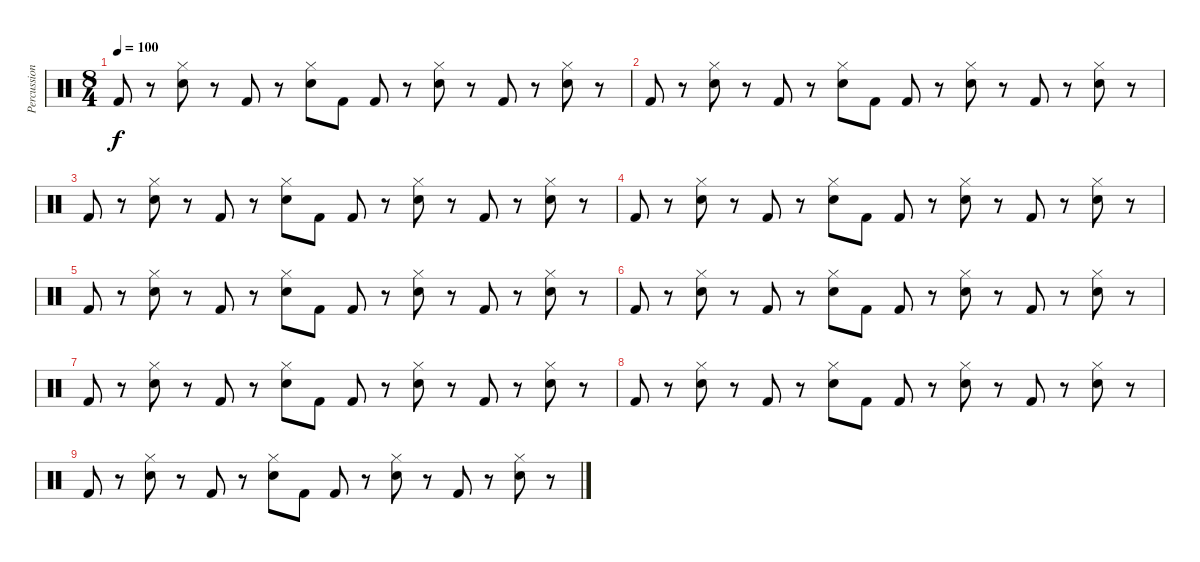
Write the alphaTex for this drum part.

\track ("Percussion" "Percussion") {instrument percussion}
\staff {score}
\articulation defaults
\ts (8 4)
\tempo 100
\clef neutral
\ks c "Kick (hit) 2".8{dy f}
r.8 ("Hi-Hat (closed)" "Snare (hit) 2").8 r.8 "Kick (hit) 2".8 r.8 ("Hi-Hat (closed)" "Snare (hit) 2").8 "Kick (hit) 2".8 "Kick (hit) 2".8 r.8 ("Hi-Hat (closed)" "Snare (hit) 2").8 r.8 "Kick (hit) 2".8 r.8 ("Hi-Hat (closed)" "Snare (hit) 2").8 r.8 |
"Kick (hit) 2".8 r.8 ("Hi-Hat (closed)" "Snare (hit) 2").8 r.8 "Kick (hit) 2".8 r.8 ("Hi-Hat (closed)" "Snare (hit) 2").8 "Kick (hit) 2".8 "Kick (hit) 2".8 r.8 ("Hi-Hat (closed)" "Snare (hit) 2").8 r.8 "Kick (hit) 2".8 r.8 ("Hi-Hat (closed)" "Snare (hit) 2").8 r.8 |
"Kick (hit) 2".8 r.8 ("Hi-Hat (closed)" "Snare (hit) 2").8 r.8 "Kick (hit) 2".8 r.8 ("Hi-Hat (closed)" "Snare (hit) 2").8 "Kick (hit) 2".8 "Kick (hit) 2".8 r.8 ("Hi-Hat (closed)" "Snare (hit) 2").8 r.8 "Kick (hit) 2".8 r.8 ("Hi-Hat (closed)" "Snare (hit) 2").8 r.8 |
"Kick (hit) 2".8 r.8 ("Hi-Hat (closed)" "Snare (hit) 2").8 r.8 "Kick (hit) 2".8 r.8 ("Hi-Hat (closed)" "Snare (hit) 2").8 "Kick (hit) 2".8 "Kick (hit) 2".8 r.8 ("Hi-Hat (closed)" "Snare (hit) 2").8 r.8 "Kick (hit) 2".8 r.8 ("Hi-Hat (closed)" "Snare (hit) 2").8 r.8 |
"Kick (hit) 2".8 r.8 ("Hi-Hat (closed)" "Snare (hit) 2").8 r.8 "Kick (hit) 2".8 r.8 ("Hi-Hat (closed)" "Snare (hit) 2").8 "Kick (hit) 2".8 "Kick (hit) 2".8 r.8 ("Hi-Hat (closed)" "Snare (hit) 2").8 r.8 "Kick (hit) 2".8 r.8 ("Hi-Hat (closed)" "Snare (hit) 2").8 r.8 |
"Kick (hit) 2".8 r.8 ("Hi-Hat (closed)" "Snare (hit) 2").8 r.8 "Kick (hit) 2".8 r.8 ("Hi-Hat (closed)" "Snare (hit) 2").8 "Kick (hit) 2".8 "Kick (hit) 2".8 r.8 ("Hi-Hat (closed)" "Snare (hit) 2").8 r.8 "Kick (hit) 2".8 r.8 ("Hi-Hat (closed)" "Snare (hit) 2").8 r.8 |
"Kick (hit) 2".8 r.8 ("Hi-Hat (closed)" "Snare (hit) 2").8 r.8 "Kick (hit) 2".8 r.8 ("Hi-Hat (closed)" "Snare (hit) 2").8 "Kick (hit) 2".8 "Kick (hit) 2".8 r.8 ("Hi-Hat (closed)" "Snare (hit) 2").8 r.8 "Kick (hit) 2".8 r.8 ("Hi-Hat (closed)" "Snare (hit) 2").8 r.8 |
"Kick (hit) 2".8 r.8 ("Hi-Hat (closed)" "Snare (hit) 2").8 r.8 "Kick (hit) 2".8 r.8 ("Hi-Hat (closed)" "Snare (hit) 2").8 "Kick (hit) 2".8 "Kick (hit) 2".8 r.8 ("Hi-Hat (closed)" "Snare (hit) 2").8 r.8 "Kick (hit) 2".8 r.8 ("Hi-Hat (closed)" "Snare (hit) 2").8 r.8 |
"Kick (hit) 2".8 r.8 ("Hi-Hat (closed)" "Snare (hit) 2").8 r.8 "Kick (hit) 2".8 r.8 ("Hi-Hat (closed)" "Snare (hit) 2").8 "Kick (hit) 2".8 "Kick (hit) 2".8 r.8 ("Hi-Hat (closed)" "Snare (hit) 2").8 r.8 "Kick (hit) 2".8 r.8 ("Hi-Hat (closed)" "Snare (hit) 2").8 r.8
